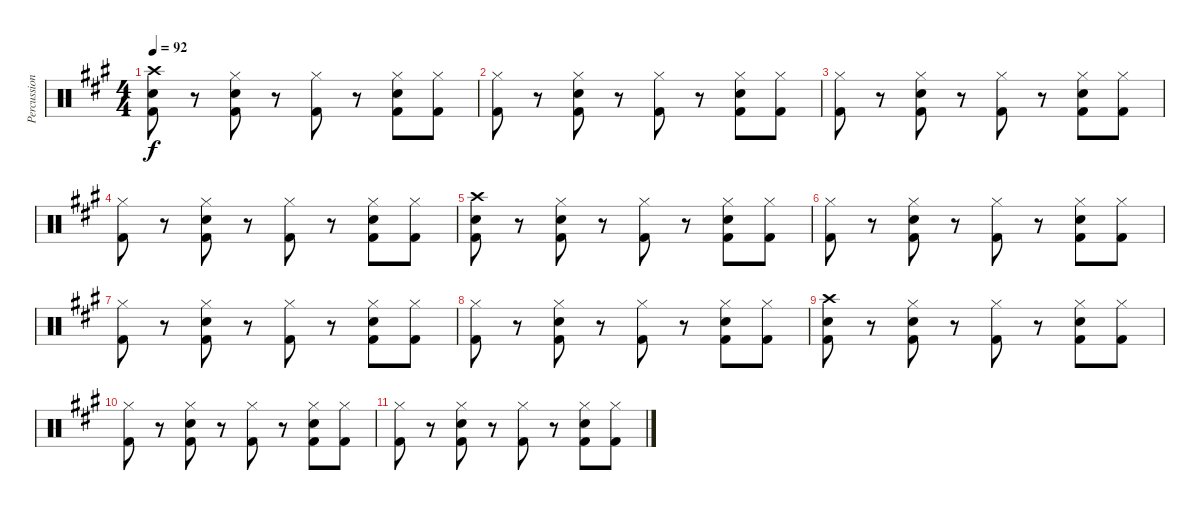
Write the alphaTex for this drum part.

\track ("Percussion" "Percussion") {instrument percussion}
\staff {score}
\articulation defaults
\ts (4 4)
\tempo 92
\clef neutral
\ks a
("Kick (hit) 2" "Snare (hit) 2" "Crash high (hit)").8{dy f} r.8 ("Kick (hit) 2" "Snare (hit) 2" "Hi-Hat (closed)").8 r.8 ("Kick (hit) 2" "Hi-Hat (closed)").8 r.8 ("Kick (hit) 2" "Snare (hit) 2" "Hi-Hat (closed)").8 ("Kick (hit) 2" "Hi-Hat (closed)").8 |
("Kick (hit) 2" "Hi-Hat (closed)").8 r.8 ("Kick (hit) 2" "Snare (hit) 2" "Hi-Hat (closed)").8 r.8 ("Kick (hit) 2" "Hi-Hat (closed)").8 r.8 ("Kick (hit) 2" "Snare (hit) 2" "Hi-Hat (closed)").8 ("Kick (hit) 2" "Hi-Hat (closed)").8 |
("Kick (hit) 2" "Hi-Hat (closed)").8 r.8 ("Kick (hit) 2" "Snare (hit) 2" "Hi-Hat (closed)").8 r.8 ("Kick (hit) 2" "Hi-Hat (closed)").8 r.8 ("Kick (hit) 2" "Snare (hit) 2" "Hi-Hat (closed)").8 ("Kick (hit) 2" "Hi-Hat (closed)").8 |
("Kick (hit) 2" "Hi-Hat (closed)").8 r.8 ("Kick (hit) 2" "Snare (hit) 2" "Hi-Hat (closed)").8 r.8 ("Kick (hit) 2" "Hi-Hat (closed)").8 r.8 ("Kick (hit) 2" "Snare (hit) 2" "Hi-Hat (closed)").8 ("Kick (hit) 2" "Hi-Hat (closed)").8 |
("Kick (hit) 2" "Snare (hit) 2" "Crash high (hit)").8 r.8 ("Kick (hit) 2" "Snare (hit) 2" "Hi-Hat (closed)").8 r.8 ("Kick (hit) 2" "Hi-Hat (closed)").8 r.8 ("Kick (hit) 2" "Snare (hit) 2" "Hi-Hat (closed)").8 ("Kick (hit) 2" "Hi-Hat (closed)").8 |
("Kick (hit) 2" "Hi-Hat (closed)").8 r.8 ("Kick (hit) 2" "Snare (hit) 2" "Hi-Hat (closed)").8 r.8 ("Kick (hit) 2" "Hi-Hat (closed)").8 r.8 ("Kick (hit) 2" "Snare (hit) 2" "Hi-Hat (closed)").8 ("Kick (hit) 2" "Hi-Hat (closed)").8 |
("Kick (hit) 2" "Hi-Hat (closed)").8 r.8 ("Kick (hit) 2" "Snare (hit) 2" "Hi-Hat (closed)").8 r.8 ("Kick (hit) 2" "Hi-Hat (closed)").8 r.8 ("Kick (hit) 2" "Snare (hit) 2" "Hi-Hat (closed)").8 ("Kick (hit) 2" "Hi-Hat (closed)").8 |
("Kick (hit) 2" "Hi-Hat (closed)").8 r.8 ("Kick (hit) 2" "Snare (hit) 2" "Hi-Hat (closed)").8 r.8 ("Kick (hit) 2" "Hi-Hat (closed)").8 r.8 ("Kick (hit) 2" "Snare (hit) 2" "Hi-Hat (closed)").8 ("Kick (hit) 2" "Hi-Hat (closed)").8 |
("Kick (hit) 2" "Snare (hit) 2" "Crash high (hit)").8 r.8 ("Kick (hit) 2" "Snare (hit) 2" "Hi-Hat (closed)").8 r.8 ("Kick (hit) 2" "Hi-Hat (closed)").8 r.8 ("Kick (hit) 2" "Snare (hit) 2" "Hi-Hat (closed)").8 ("Kick (hit) 2" "Hi-Hat (closed)").8 |
("Kick (hit) 2" "Hi-Hat (closed)").8 r.8 ("Kick (hit) 2" "Snare (hit) 2" "Hi-Hat (closed)").8 r.8 ("Kick (hit) 2" "Hi-Hat (closed)").8 r.8 ("Kick (hit) 2" "Snare (hit) 2" "Hi-Hat (closed)").8 ("Kick (hit) 2" "Hi-Hat (closed)").8 |
("Kick (hit) 2" "Hi-Hat (closed)").8 r.8 ("Kick (hit) 2" "Snare (hit) 2" "Hi-Hat (closed)").8 r.8 ("Kick (hit) 2" "Hi-Hat (closed)").8 r.8 ("Kick (hit) 2" "Snare (hit) 2" "Hi-Hat (closed)").8 ("Kick (hit) 2" "Hi-Hat (closed)").8
